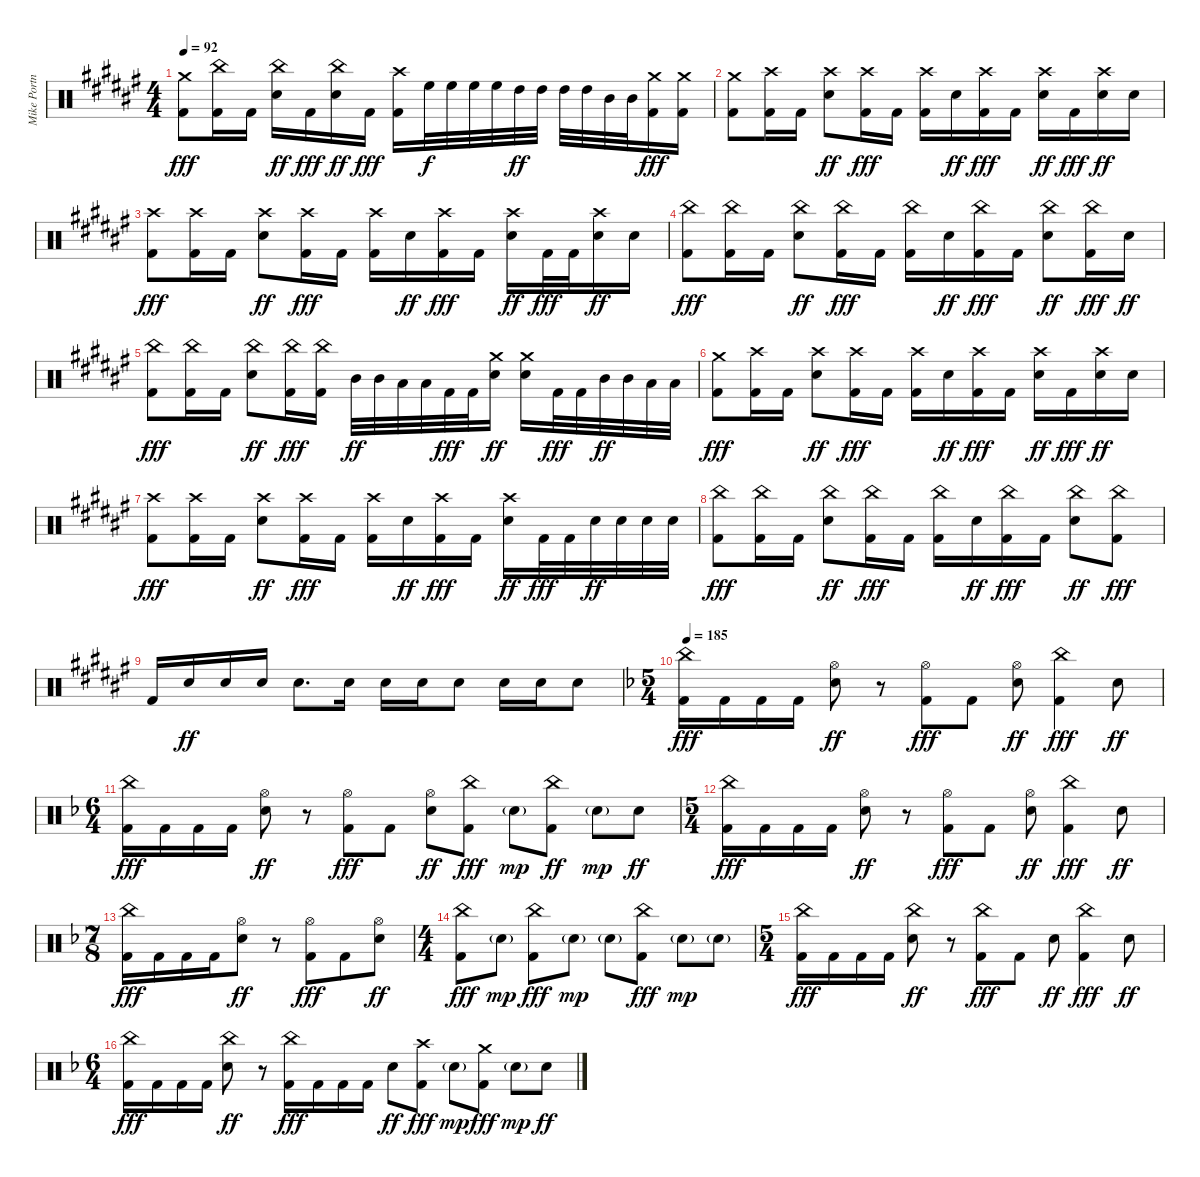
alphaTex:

\track ("Mike Portnoy" "Mike Portn") {instrument percussion}
\staff {score}
\articulation defaults
\ts (4 4)
\tempo 92
\clef neutral
\ks f#
("Crash medium (hit)" "Kick (hit) 2").8{dy fff} ("China (hit)" "Kick (hit) 2").16 "Kick (hit) 2".16 ("China (hit)" "Electric Snare (hit)").16{dy ff} "Kick (hit) 2".16{dy fff} ("China (hit)" "Electric Snare (hit)").16{dy ff} "Kick (hit) 2".16{dy fff} ("Crash high (hit)" "Kick (hit) 2").16 "High Floor Tom (hit)".32{dy f} "High Floor Tom (hit)".32 "High Floor Tom (hit)".32 "High Floor Tom (hit)".32 "High Tom (hit)".32{dy ff} "High Tom (hit)".32 "High Tom (hit)".32 "High Tom (hit)".32 "Mid Tom (hit)".32 "Mid Tom (hit)".32 ("Crash medium (hit)" "Kick (hit) 2").16{dy fff} ("Crash medium (hit)" "Kick (hit) 2").16 |
("Crash medium (hit)" "Kick (hit) 2").8 ("Crash high (hit)" "Kick (hit) 2").16 "Kick (hit) 2".16 ("Crash high (hit)" "Electric Snare (hit)").8{dy ff} ("Crash high (hit)" "Kick (hit) 2").16{dy fff} "Kick (hit) 2".16 ("Crash high (hit)" "Kick (hit) 2").16 "Electric Snare (hit)".16{dy ff} ("Crash high (hit)" "Kick (hit) 2").16{dy fff} "Kick (hit) 2".16 ("Crash high (hit)" "Electric Snare (hit)").16{dy ff} "Kick (hit) 2".16{dy fff} ("Crash high (hit)" "Electric Snare (hit)").16{dy ff} "Electric Snare (hit)".16 |
("Crash high (hit)" "Kick (hit) 2").8{dy fff} ("Crash high (hit)" "Kick (hit) 2").16 "Kick (hit) 2".16 ("Crash high (hit)" "Electric Snare (hit)").8{dy ff} ("Crash high (hit)" "Kick (hit) 2").16{dy fff} "Kick (hit) 2".16 ("Crash high (hit)" "Kick (hit) 2").16 "Electric Snare (hit)".16{dy ff} ("Crash high (hit)" "Kick (hit) 2").16{dy fff} "Kick (hit) 2".16 ("Crash high (hit)" "Electric Snare (hit)").16{dy ff} "Kick (hit) 2".32{dy fff} "Kick (hit) 2".32 ("Crash high (hit)" "Electric Snare (hit)").16{dy ff} "Electric Snare (hit)".16 |
("China (hit)" "Kick (hit) 2").8{dy fff} ("China (hit)" "Kick (hit) 2").16 "Kick (hit) 2".16 ("China (hit)" "Electric Snare (hit)").8{dy ff} ("China (hit)" "Kick (hit) 2").16{dy fff} "Kick (hit) 2".16 ("China (hit)" "Kick (hit) 2").16 "Electric Snare (hit)".16{dy ff} ("China (hit)" "Kick (hit) 2").16{dy fff} "Kick (hit) 2".16 ("China (hit)" "Electric Snare (hit)").8{dy ff} ("China (hit)" "Kick (hit) 2").16{dy fff} "Electric Snare (hit)".16{dy ff} |
("China (hit)" "Kick (hit) 2").8{dy fff} ("China (hit)" "Kick (hit) 2").16 "Kick (hit) 2".16 ("China (hit)" "Electric Snare (hit)").8{dy ff} ("China (hit)" "Kick (hit) 2").16{dy fff} ("China (hit)" "Kick (hit) 2").16 "Mid Tom (hit)".32{dy ff} "Mid Tom (hit)".32 "Low Tom (hit)".32 "Low Tom (hit)".32 "Kick (hit) 2".32{dy fff} "Kick (hit) 2".32 ("Crash medium (hit)" "Electric Snare (hit)").16{dy ff} ("Crash medium (hit)" "Electric Snare (hit)").16 "Kick (hit) 2".32{dy fff} "Kick (hit) 2".32 "Mid Tom (hit)".32{dy ff} "Mid Tom (hit)".32 "Low Tom (hit)".32 "Low Tom (hit)".32 |
("Crash medium (hit)" "Kick (hit) 2").8{dy fff} ("Crash high (hit)" "Kick (hit) 2").16 "Kick (hit) 2".16 ("Crash high (hit)" "Electric Snare (hit)").8{dy ff} ("Crash high (hit)" "Kick (hit) 2").16{dy fff} "Kick (hit) 2".16 ("Crash high (hit)" "Kick (hit) 2").16 "Electric Snare (hit)".16{dy ff} ("Crash high (hit)" "Kick (hit) 2").16{dy fff} "Kick (hit) 2".16 ("Crash high (hit)" "Electric Snare (hit)").16{dy ff} "Kick (hit) 2".16{dy fff} ("Crash high (hit)" "Electric Snare (hit)").16{dy ff} "Electric Snare (hit)".16 |
("Crash high (hit)" "Kick (hit) 2").8{dy fff} ("Crash high (hit)" "Kick (hit) 2").16 "Kick (hit) 2".16 ("Crash high (hit)" "Electric Snare (hit)").8{dy ff} ("Crash high (hit)" "Kick (hit) 2").16{dy fff} "Kick (hit) 2".16 ("Crash high (hit)" "Kick (hit) 2").16 "Electric Snare (hit)".16{dy ff} ("Crash high (hit)" "Kick (hit) 2").16{dy fff} "Kick (hit) 2".16 ("Crash high (hit)" "Electric Snare (hit)").16{dy ff} "Kick (hit) 2".32{dy fff} "Kick (hit) 2".32 "Electric Snare (hit)".32{dy ff} "Electric Snare (hit)".32 "Electric Snare (hit)".32 "Electric Snare (hit)".32 |
("China (hit)" "Kick (hit) 2").8{dy fff} ("China (hit)" "Kick (hit) 2").16 "Kick (hit) 2".16 ("China (hit)" "Electric Snare (hit)").8{dy ff} ("China (hit)" "Kick (hit) 2").16{dy fff} "Kick (hit) 2".16 ("China (hit)" "Kick (hit) 2").16 "Electric Snare (hit)".16{dy ff} ("China (hit)" "Kick (hit) 2").16{dy fff} "Kick (hit) 2".16 ("China (hit)" "Electric Snare (hit)").8{dy ff} ("China (hit)" "Kick (hit) 2").8{dy fff} |
"Kick (hit) 2".16 "Electric Snare (hit)".16{dy ff} "Electric Snare (hit)".16 "Electric Snare (hit)".16 "Electric Snare (hit)".8{d} "Electric Snare (hit)".16 "Electric Snare (hit)".16 "Electric Snare (hit)".16 "Electric Snare (hit)".8 "Electric Snare (hit)".16 "Electric Snare (hit)".16 "Electric Snare (hit)".8 |
\ts (5 4)
\tempo 185
\ks f
("China (hit)" "Kick (hit) 2").16{dy fff} "Kick (hit) 2".16 "Kick (hit) 2".16 "Kick (hit) 2".16 ("Hi-Hat (open)" "Electric Snare (hit)").8{dy ff} r.8 ("Hi-Hat (open)" "Kick (hit) 2").8{dy fff} "Kick (hit) 2".8 ("Hi-Hat (open)" "Electric Snare (hit)").8{dy ff} ("China (hit)" "Kick (hit) 2").4{dy fff} "Electric Snare (hit)".8{dy ff} |
\ts (6 4)
("China (hit)" "Kick (hit) 2").16{dy fff} "Kick (hit) 2".16 "Kick (hit) 2".16 "Kick (hit) 2".16 ("Hi-Hat (open)" "Electric Snare (hit)").8{dy ff} r.8 ("Hi-Hat (open)" "Kick (hit) 2").8{dy fff} "Kick (hit) 2".8 ("Hi-Hat (open)" "Electric Snare (hit)").8{dy ff} ("China (hit)" "Kick (hit) 2").8{dy fff} "Electric Snare (hit)"{g}.8{dy mp} ("China (hit)" "Kick (hit) 2").8{dy ff} "Electric Snare (hit)"{g}.8{dy mp} "Electric Snare (hit)".8{dy ff} |
\ts (5 4)
("China (hit)" "Kick (hit) 2").16{dy fff} "Kick (hit) 2".16 "Kick (hit) 2".16 "Kick (hit) 2".16 ("Hi-Hat (open)" "Electric Snare (hit)").8{dy ff} r.8 ("Hi-Hat (open)" "Kick (hit) 2").8{dy fff} "Kick (hit) 2".8 ("Hi-Hat (open)" "Electric Snare (hit)").8{dy ff} ("China (hit)" "Kick (hit) 2").4{dy fff} "Electric Snare (hit)".8{dy ff} |
\ts (7 8)
("China (hit)" "Kick (hit) 2").16{dy fff} "Kick (hit) 2".16 "Kick (hit) 2".16 "Kick (hit) 2".16 ("Hi-Hat (open)" "Electric Snare (hit)").8{dy ff} r.8 ("Hi-Hat (open)" "Kick (hit) 2").8{dy fff} "Kick (hit) 2".8 ("Hi-Hat (open)" "Electric Snare (hit)").8{dy ff} |
\ts (4 4)
("China (hit)" "Kick (hit) 2").8{dy fff} "Electric Snare (hit)"{g}.8{dy mp} ("China (hit)" "Kick (hit) 2").8{dy fff} "Electric Snare (hit)"{g}.8{dy mp} "Electric Snare (hit)"{g}.8 ("China (hit)" "Kick (hit) 2").8{dy fff} "Electric Snare (hit)"{g}.8{dy mp} "Electric Snare (hit)"{g}.8 |
\ts (5 4)
("China (hit)" "Kick (hit) 2").16{dy fff} "Kick (hit) 2".16 "Kick (hit) 2".16 "Kick (hit) 2".16 ("China (hit)" "Electric Snare (hit)").8{dy ff} r.8 ("China (hit)" "Kick (hit) 2").8{dy fff} "Kick (hit) 2".8 "Electric Snare (hit)".8{dy ff} ("China (hit)" "Kick (hit) 2").4{dy fff} "Electric Snare (hit)".8{dy ff} |
\ts (6 4)
("China (hit)" "Kick (hit) 2").16{dy fff} "Kick (hit) 2".16 "Kick (hit) 2".16 "Kick (hit) 2".16 ("China (hit)" "Electric Snare (hit)").8{dy ff} r.8 ("China (hit)" "Kick (hit) 2").16{dy fff} "Kick (hit) 2".16 "Kick (hit) 2".16 "Kick (hit) 2".16 "Electric Snare (hit)".8{dy ff} ("Crash high (hit)" "Kick (hit) 2").8{dy fff} "Electric Snare (hit)"{g}.8{dy mp} ("Crash medium (hit)" "Kick (hit) 2").8{dy fff} "Electric Snare (hit)"{g}.8{dy mp} "Electric Snare (hit)".8{dy ff}
